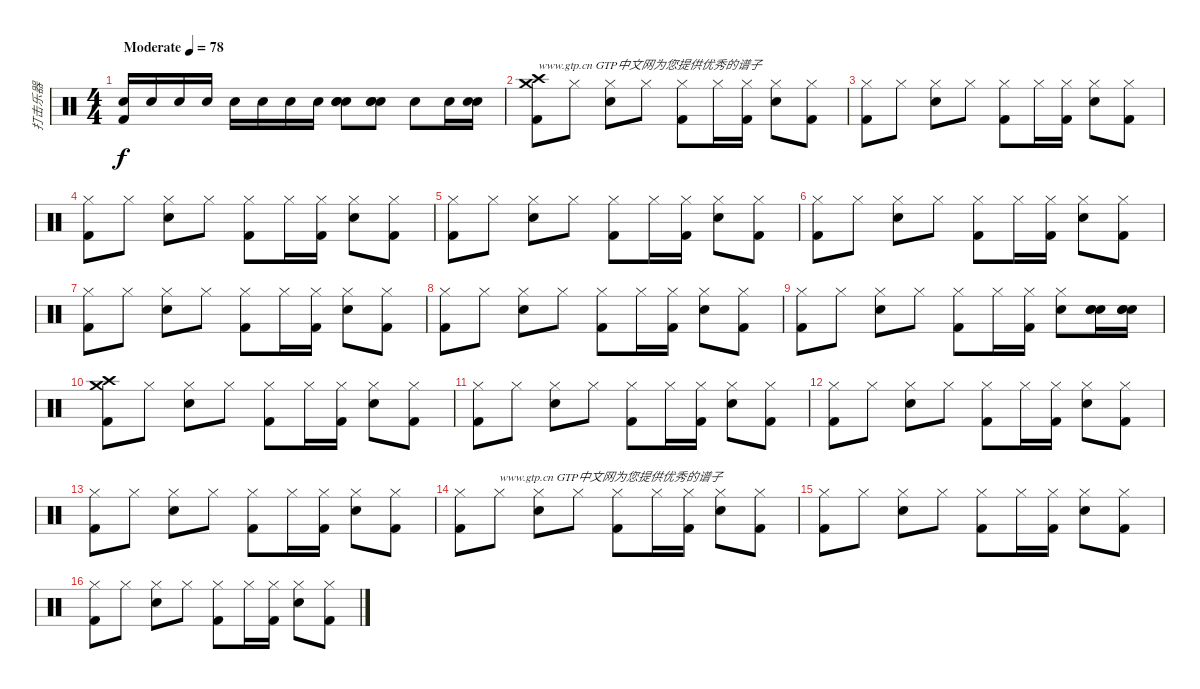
\track ("打击乐器" "打击乐器") {instrument percussion}
\staff {score}
\articulation defaults
\ts (4 4)
\tempo (78 "Moderate")
\clef neutral
\ks c
("Snare (hit) 2" "Kick (hit) 2").16{dy f} "Snare (hit) 2".16 "Snare (hit) 2".16 "Snare (hit) 2".16 "Snare (hit) 2".16 "Snare (hit) 2".16 "Snare (hit) 2".16 "Snare (hit) 2".16 ("Electric Snare (hit)" "Electric Snare (hit)" "Electric Snare (hit)").8 ("Electric Snare (hit)" "Electric Snare (hit)" "Electric Snare (hit)").8 "Snare (hit) 2".8 "Snare (hit) 2".16 ("Snare (hit) 2" "Electric Snare (hit)").16 |
("Kick (hit) 2" "Crash high (hit)" "Crash medium (hit)").8{txt "www.gtp.cn GTP中文网为您提供优秀的谱子"} "Hi-Hat (closed)".8 ("Electric Snare (hit)" "Hi-Hat (closed)").8 "Hi-Hat (closed)".8 ("Kick (hit) 2" "Hi-Hat (closed)").8 "Hi-Hat (closed)".16 ("Kick (hit) 2" "Hi-Hat (closed)").16 ("Electric Snare (hit)" "Hi-Hat (closed)").8 ("Kick (hit) 2" "Hi-Hat (closed)").8 |
("Kick (hit) 2" "Hi-Hat (closed)").8 "Hi-Hat (closed)".8 ("Electric Snare (hit)" "Hi-Hat (closed)").8 "Hi-Hat (closed)".8 ("Kick (hit) 2" "Hi-Hat (closed)").8 "Hi-Hat (closed)".16 ("Kick (hit) 2" "Hi-Hat (closed)").16 ("Electric Snare (hit)" "Hi-Hat (closed)").8 ("Kick (hit) 2" "Hi-Hat (closed)").8 |
("Kick (hit) 2" "Hi-Hat (closed)").8 "Hi-Hat (closed)".8 ("Electric Snare (hit)" "Hi-Hat (closed)").8 "Hi-Hat (closed)".8 ("Kick (hit) 2" "Hi-Hat (closed)").8 "Hi-Hat (closed)".16 ("Kick (hit) 2" "Hi-Hat (closed)").16 ("Electric Snare (hit)" "Hi-Hat (closed)").8 ("Kick (hit) 2" "Hi-Hat (closed)").8 |
("Kick (hit) 2" "Hi-Hat (closed)").8 "Hi-Hat (closed)".8 ("Electric Snare (hit)" "Hi-Hat (closed)").8 "Hi-Hat (closed)".8 ("Kick (hit) 2" "Hi-Hat (closed)").8 "Hi-Hat (closed)".16 ("Kick (hit) 2" "Hi-Hat (closed)").16 ("Electric Snare (hit)" "Hi-Hat (closed)").8 ("Kick (hit) 2" "Hi-Hat (closed)").8 |
("Kick (hit) 2" "Hi-Hat (closed)").8 "Hi-Hat (closed)".8 ("Electric Snare (hit)" "Hi-Hat (closed)").8 "Hi-Hat (closed)".8 ("Kick (hit) 2" "Hi-Hat (closed)").8 "Hi-Hat (closed)".16 ("Kick (hit) 2" "Hi-Hat (closed)").16 ("Electric Snare (hit)" "Hi-Hat (closed)").8 ("Kick (hit) 2" "Hi-Hat (closed)").8 |
("Kick (hit) 2" "Hi-Hat (closed)").8 "Hi-Hat (closed)".8 ("Electric Snare (hit)" "Hi-Hat (closed)").8 "Hi-Hat (closed)".8 ("Kick (hit) 2" "Hi-Hat (closed)").8 "Hi-Hat (closed)".16 ("Kick (hit) 2" "Hi-Hat (closed)").16 ("Electric Snare (hit)" "Hi-Hat (closed)").8 ("Kick (hit) 2" "Hi-Hat (closed)").8 |
("Kick (hit) 2" "Hi-Hat (closed)").8 "Hi-Hat (closed)".8 ("Electric Snare (hit)" "Hi-Hat (closed)").8 "Hi-Hat (closed)".8 ("Kick (hit) 2" "Hi-Hat (closed)").8 "Hi-Hat (closed)".16 ("Kick (hit) 2" "Hi-Hat (closed)").16 ("Electric Snare (hit)" "Hi-Hat (closed)").8 ("Kick (hit) 2" "Hi-Hat (closed)").8 |
("Kick (hit) 2" "Hi-Hat (closed)").8 "Hi-Hat (closed)".8 ("Electric Snare (hit)" "Hi-Hat (closed)").8 "Hi-Hat (closed)".8 ("Kick (hit) 2" "Hi-Hat (closed)").8 "Hi-Hat (closed)".16 ("Kick (hit) 2" "Hi-Hat (closed)").16 ("Electric Snare (hit)" "Hi-Hat (closed)").8 ("Electric Snare (hit)" "Electric Snare (hit)" "Electric Snare (hit)").16 ("Electric Snare (hit)" "Electric Snare (hit)" "Electric Snare (hit)").16 |
("Kick (hit) 2" "Crash high (hit)" "Crash medium (hit)").8 "Hi-Hat (closed)".8 ("Electric Snare (hit)" "Hi-Hat (closed)").8 "Hi-Hat (closed)".8 ("Kick (hit) 2" "Hi-Hat (closed)").8 "Hi-Hat (closed)".16 ("Kick (hit) 2" "Hi-Hat (closed)").16 ("Electric Snare (hit)" "Hi-Hat (closed)").8 ("Kick (hit) 2" "Hi-Hat (closed)").8 |
("Kick (hit) 2" "Hi-Hat (closed)").8 "Hi-Hat (closed)".8 ("Electric Snare (hit)" "Hi-Hat (closed)").8 "Hi-Hat (closed)".8 ("Kick (hit) 2" "Hi-Hat (closed)").8 "Hi-Hat (closed)".16 ("Kick (hit) 2" "Hi-Hat (closed)").16 ("Electric Snare (hit)" "Hi-Hat (closed)").8 ("Kick (hit) 2" "Hi-Hat (closed)").8 |
("Kick (hit) 2" "Hi-Hat (closed)").8 "Hi-Hat (closed)".8 ("Electric Snare (hit)" "Hi-Hat (closed)").8 "Hi-Hat (closed)".8 ("Kick (hit) 2" "Hi-Hat (closed)").8 "Hi-Hat (closed)".16 ("Kick (hit) 2" "Hi-Hat (closed)").16 ("Electric Snare (hit)" "Hi-Hat (closed)").8 ("Kick (hit) 2" "Hi-Hat (closed)").8 |
("Kick (hit) 2" "Hi-Hat (closed)").8 "Hi-Hat (closed)".8 ("Electric Snare (hit)" "Hi-Hat (closed)").8 "Hi-Hat (closed)".8 ("Kick (hit) 2" "Hi-Hat (closed)").8 "Hi-Hat (closed)".16 ("Kick (hit) 2" "Hi-Hat (closed)").16 ("Electric Snare (hit)" "Hi-Hat (closed)").8 ("Kick (hit) 2" "Hi-Hat (closed)").8 |
("Kick (hit) 2" "Hi-Hat (closed)").8 "Hi-Hat (closed)".8{txt "www.gtp.cn GTP中文网为您提供优秀的谱子"} ("Electric Snare (hit)" "Hi-Hat (closed)").8 "Hi-Hat (closed)".8 ("Kick (hit) 2" "Hi-Hat (closed)").8 "Hi-Hat (closed)".16 ("Kick (hit) 2" "Hi-Hat (closed)").16 ("Electric Snare (hit)" "Hi-Hat (closed)").8 ("Kick (hit) 2" "Hi-Hat (closed)").8 |
("Kick (hit) 2" "Hi-Hat (closed)").8 "Hi-Hat (closed)".8 ("Electric Snare (hit)" "Hi-Hat (closed)").8 "Hi-Hat (closed)".8 ("Kick (hit) 2" "Hi-Hat (closed)").8 "Hi-Hat (closed)".16 ("Kick (hit) 2" "Hi-Hat (closed)").16 ("Electric Snare (hit)" "Hi-Hat (closed)").8 ("Kick (hit) 2" "Hi-Hat (closed)").8 |
("Kick (hit) 2" "Hi-Hat (closed)").8 "Hi-Hat (closed)".8 ("Electric Snare (hit)" "Hi-Hat (closed)").8 "Hi-Hat (closed)".8 ("Kick (hit) 2" "Hi-Hat (closed)").8 "Hi-Hat (closed)".16 ("Kick (hit) 2" "Hi-Hat (closed)").16 ("Electric Snare (hit)" "Hi-Hat (closed)").8 ("Kick (hit) 2" "Hi-Hat (closed)").8
